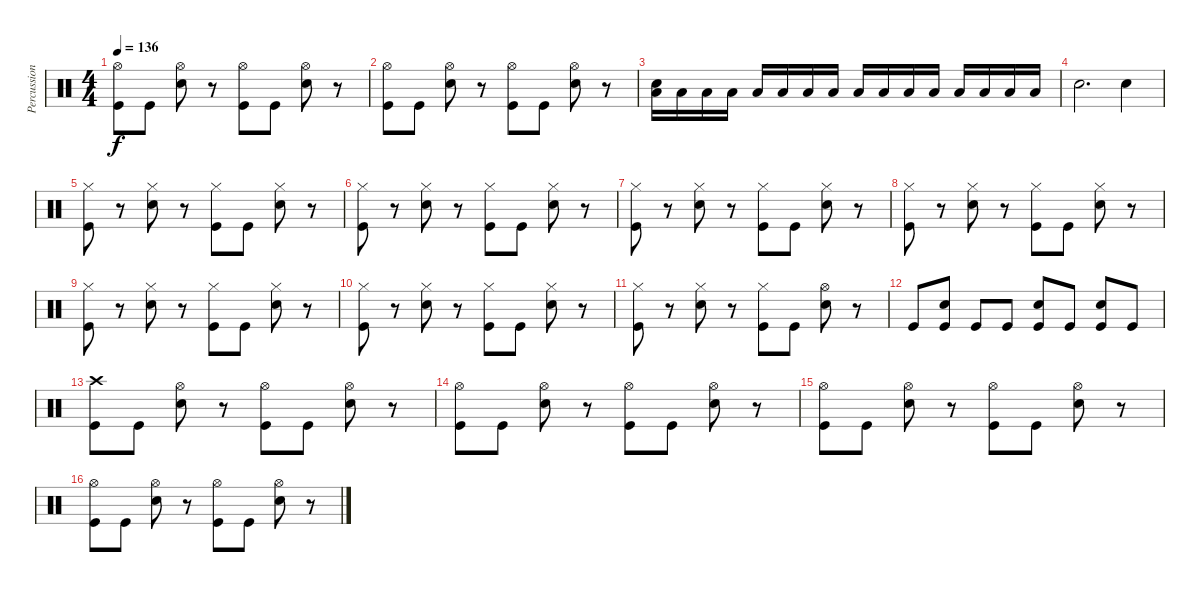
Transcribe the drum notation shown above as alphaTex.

\track ("Percussion" "Percussion") {instrument percussion}
\staff {score}
\articulation defaults
\ts (4 4)
\tempo 136
\clef neutral
\ks c
("Hi-Hat (open)" "Kick (hit)").8{dy f} "Kick (hit)".8 ("Hi-Hat (open)" "Snare (hit) 2").8 r.8 ("Hi-Hat (open)" "Kick (hit)").8 "Kick (hit)".8 ("Hi-Hat (open)" "Snare (hit) 2").8 r.8 |
("Hi-Hat (open)" "Kick (hit)").8 "Kick (hit)".8 ("Hi-Hat (open)" "Snare (hit) 2").8 r.8 ("Hi-Hat (open)" "Kick (hit)").8 "Kick (hit)".8 ("Hi-Hat (open)" "Snare (hit) 2").8 r.8 |
("Snare (hit) 2" "Low Tom (hit)").16 "Low Tom (hit)".16 "Low Tom (hit)".16 "Low Tom (hit)".16 "Low Tom (hit)".16 "Low Tom (hit)".16 "Low Tom (hit)".16 "Low Tom (hit)".16 "Low Tom (hit)".16 "Low Tom (hit)".16 "Low Tom (hit)".16 "Low Tom (hit)".16 "Low Tom (hit)".16 "Low Tom (hit)".16 "Low Tom (hit)".16 "Low Tom (hit)".16 |
"Snare (hit) 2".2{d} "Snare (hit) 2".4 |
("Hi-Hat (closed)" "Kick (hit)").8 r.8 ("Hi-Hat (closed)" "Snare (hit) 2").8 r.8 ("Hi-Hat (closed)" "Kick (hit)").8 "Kick (hit)".8 ("Hi-Hat (closed)" "Snare (hit) 2").8 r.8 |
("Hi-Hat (closed)" "Kick (hit)").8 r.8 ("Hi-Hat (closed)" "Snare (hit) 2").8 r.8 ("Hi-Hat (closed)" "Kick (hit)").8 "Kick (hit)".8 ("Hi-Hat (closed)" "Snare (hit) 2").8 r.8 |
("Hi-Hat (closed)" "Kick (hit)").8 r.8 ("Hi-Hat (closed)" "Snare (hit) 2").8 r.8 ("Hi-Hat (closed)" "Kick (hit)").8 "Kick (hit)".8 ("Hi-Hat (closed)" "Snare (hit) 2").8 r.8 |
("Hi-Hat (closed)" "Kick (hit)").8 r.8 ("Hi-Hat (closed)" "Snare (hit) 2").8 r.8 ("Hi-Hat (closed)" "Kick (hit)").8 "Kick (hit)".8 ("Hi-Hat (closed)" "Snare (hit) 2").8 r.8 |
("Hi-Hat (closed)" "Kick (hit)").8 r.8 ("Hi-Hat (closed)" "Snare (hit) 2").8 r.8 ("Hi-Hat (closed)" "Kick (hit)").8 "Kick (hit)".8 ("Hi-Hat (closed)" "Snare (hit) 2").8 r.8 |
("Hi-Hat (closed)" "Kick (hit)").8 r.8 ("Hi-Hat (closed)" "Snare (hit) 2").8 r.8 ("Hi-Hat (closed)" "Kick (hit)").8 "Kick (hit)".8 ("Hi-Hat (closed)" "Snare (hit) 2").8 r.8 |
("Hi-Hat (closed)" "Kick (hit)").8 r.8 ("Hi-Hat (closed)" "Snare (hit) 2").8 r.8 ("Hi-Hat (closed)" "Kick (hit)").8 "Kick (hit)".8 ("Hi-Hat (open)" "Snare (hit) 2").8 r.8 |
"Kick (hit)".8 ("Snare (hit) 2" "Kick (hit)").8 "Kick (hit)".8 "Kick (hit)".8 ("Snare (hit) 2" "Kick (hit)").8 "Kick (hit)".8 ("Snare (hit) 2" "Kick (hit)").8 "Kick (hit)".8 |
("Crash high (hit)" "Kick (hit)").8 "Kick (hit)".8 ("Hi-Hat (open)" "Snare (hit) 2").8 r.8 ("Hi-Hat (open)" "Kick (hit)").8 "Kick (hit)".8 ("Hi-Hat (open)" "Snare (hit) 2").8 r.8 |
("Hi-Hat (open)" "Kick (hit)").8 "Kick (hit)".8 ("Hi-Hat (open)" "Snare (hit) 2").8 r.8 ("Hi-Hat (open)" "Kick (hit)").8 "Kick (hit)".8 ("Hi-Hat (open)" "Snare (hit) 2").8 r.8 |
("Hi-Hat (open)" "Kick (hit)").8 "Kick (hit)".8 ("Hi-Hat (open)" "Snare (hit) 2").8 r.8 ("Hi-Hat (open)" "Kick (hit)").8 "Kick (hit)".8 ("Hi-Hat (open)" "Snare (hit) 2").8 r.8 |
("Hi-Hat (open)" "Kick (hit)").8 "Kick (hit)".8 ("Hi-Hat (open)" "Snare (hit) 2").8 r.8 ("Hi-Hat (open)" "Kick (hit)").8 "Kick (hit)".8 ("Hi-Hat (open)" "Snare (hit) 2").8 r.8
